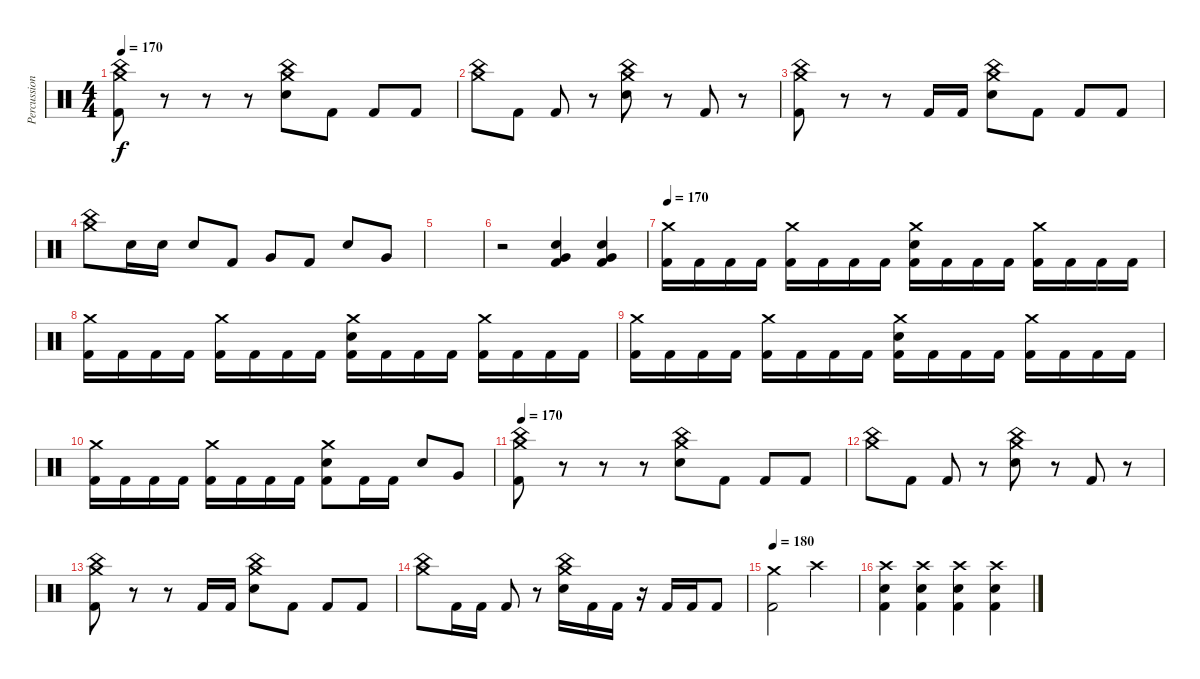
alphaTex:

\track ("Percussions" "Percussion") {instrument percussion}
\staff {score}
\articulation defaults
\ts (4 4)
\tempo 170
\clef neutral
\ks c
("China (hit)" "Crash medium (hit)" "Kick (hit) 2").8{dy f} r.8 r.8 r.8 ("China (hit)" "Crash medium (hit)" "Electric Snare (hit)").8 "Kick (hit) 2".8 "Kick (hit) 2".8 "Kick (hit) 2".8 |
("China (hit)" "Crash medium (hit)").8 "Kick (hit) 2".8 "Kick (hit) 2".8 r.8 ("Crash medium (hit)" "China (hit)" "Electric Snare (hit)").8 r.8 "Kick (hit) 2".8 r.8 |
("China (hit)" "Crash medium (hit)" "Kick (hit) 2").8 r.8 r.8 "Kick (hit) 2".16 "Kick (hit) 2".16 ("China (hit)" "Crash medium (hit)" "Electric Snare (hit)").8 "Kick (hit) 2".8 "Kick (hit) 2".8 "Kick (hit) 2".8 |
("Crash medium (hit)" "China (hit)").8 "Electric Snare (hit)".16 "Electric Snare (hit)".16 "Electric Snare (hit)".8 "Kick (hit) 2".8 "Very Low Tom (hit)".8 "Kick (hit) 2".8 "Electric Snare (hit)".8 "Very Low Tom (hit)".8 |
|
r.2 ("Electric Snare (hit)" "Very Low Tom (hit)" "Kick (hit) 2").4 ("Electric Snare (hit)" "Very Low Tom (hit)" "Kick (hit) 2").4 |
\tempo 170
("Crash medium (hit)" "Kick (hit) 2").16 "Kick (hit) 2".16 "Kick (hit) 2".16 "Kick (hit) 2".16 ("Crash medium (hit)" "Kick (hit) 2").16 "Kick (hit) 2".16 "Kick (hit) 2".16 "Kick (hit) 2".16 ("Crash medium (hit)" "Electric Snare (hit)" "Kick (hit) 2").16 "Kick (hit) 2".16 "Kick (hit) 2".16 "Kick (hit) 2".16 ("Crash medium (hit)" "Kick (hit) 2").16 "Kick (hit) 2".16 "Kick (hit) 2".16 "Kick (hit) 2".16 |
("Crash medium (hit)" "Kick (hit) 2").16 "Kick (hit) 2".16 "Kick (hit) 2".16 "Kick (hit) 2".16 ("Crash medium (hit)" "Kick (hit) 2").16 "Kick (hit) 2".16 "Kick (hit) 2".16 "Kick (hit) 2".16 ("Crash medium (hit)" "Electric Snare (hit)" "Kick (hit) 2").16 "Kick (hit) 2".16 "Kick (hit) 2".16 "Kick (hit) 2".16 ("Crash medium (hit)" "Kick (hit) 2").16 "Kick (hit) 2".16 "Kick (hit) 2".16 "Kick (hit) 2".16 |
("Crash medium (hit)" "Kick (hit) 2").16 "Kick (hit) 2".16 "Kick (hit) 2".16 "Kick (hit) 2".16 ("Crash medium (hit)" "Kick (hit) 2").16 "Kick (hit) 2".16 "Kick (hit) 2".16 "Kick (hit) 2".16 ("Crash medium (hit)" "Electric Snare (hit)" "Kick (hit) 2").16 "Kick (hit) 2".16 "Kick (hit) 2".16 "Kick (hit) 2".16 ("Crash medium (hit)" "Kick (hit) 2").16 "Kick (hit) 2".16 "Kick (hit) 2".16 "Kick (hit) 2".16 |
("Crash medium (hit)" "Kick (hit) 2").16 "Kick (hit) 2".16 "Kick (hit) 2".16 "Kick (hit) 2".16 ("Crash medium (hit)" "Kick (hit) 2").16 "Kick (hit) 2".16 "Kick (hit) 2".16 "Kick (hit) 2".16 ("Crash medium (hit)" "Electric Snare (hit)" "Kick (hit) 2").8 "Kick (hit) 2".16 "Kick (hit) 2".16 "Electric Snare (hit)".8 "Very Low Tom (hit)".8 |
\tempo 170
("China (hit)" "Crash medium (hit)" "Kick (hit) 2").8 r.8 r.8 r.8 ("China (hit)" "Crash medium (hit)" "Electric Snare (hit)").8 "Kick (hit) 2".8 "Kick (hit) 2".8 "Kick (hit) 2".8 |
("China (hit)" "Crash medium (hit)").8 "Kick (hit) 2".8 "Kick (hit) 2".8 r.8 ("Crash medium (hit)" "China (hit)" "Electric Snare (hit)").8 r.8 "Kick (hit) 2".8 r.8 |
("China (hit)" "Crash medium (hit)" "Kick (hit) 2").8 r.8 r.8 "Kick (hit) 2".16 "Kick (hit) 2".16 ("China (hit)" "Crash medium (hit)" "Electric Snare (hit)").8 "Kick (hit) 2".8 "Kick (hit) 2".8 "Kick (hit) 2".8 |
("China (hit)" "Crash medium (hit)").8 "Kick (hit) 2".16 "Kick (hit) 2".16 "Kick (hit) 2".8 r.8 ("Crash medium (hit)" "China (hit)" "Electric Snare (hit)").16 "Kick (hit) 2".16 "Kick (hit) 2".16 r.16 "Kick (hit) 2".16 "Kick (hit) 2".16 "Kick (hit) 2".8 |
\tempo 180
("Crash medium (hit)" "Kick (hit) 2").2 "Crash high (hit)".2 |
("Crash high (hit)" "Electric Snare (hit)" "Kick (hit) 2").4 ("Crash high (hit)" "Electric Snare (hit)" "Kick (hit) 2").4 ("Crash high (hit)" "Electric Snare (hit)" "Kick (hit) 2").4 ("Crash high (hit)" "Electric Snare (hit)" "Kick (hit) 2").4
